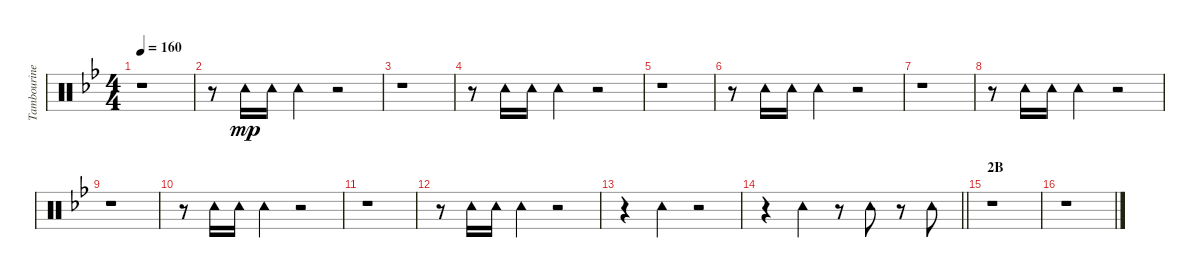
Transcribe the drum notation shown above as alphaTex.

\track ("Tambourine" "Tambourine") {instrument percussion}
\staff {score}
\articulation defaults
\ts (4 4)
\tempo 160
\clef neutral
\ks bb
r.1{dy mp} |
r.8 "Tambourine (hit)".16 "Tambourine (hit)".16 "Tambourine (hit)".4 r.2 |
r.1 |
r.8 "Tambourine (hit)".16 "Tambourine (hit)".16 "Tambourine (hit)".4 r.2 |
r.1 |
r.8 "Tambourine (hit)".16 "Tambourine (hit)".16 "Tambourine (hit)".4 r.2 |
r.1 |
r.8 "Tambourine (hit)".16 "Tambourine (hit)".16 "Tambourine (hit)".4 r.2 |
r.1 |
r.8 "Tambourine (hit)".16 "Tambourine (hit)".16 "Tambourine (hit)".4 r.2 |
r.1 |
r.8 "Tambourine (hit)".16 "Tambourine (hit)".16 "Tambourine (hit)".4 r.2 |
r.4 "Tambourine (hit)".4 r.2 |
\barLineRight lightlight
r.4 "Tambourine (hit)".4 r.8 "Tambourine (hit)".8 r.8 "Tambourine (hit)".8 |
\section ("" "2B")
r.1 |
r.1
